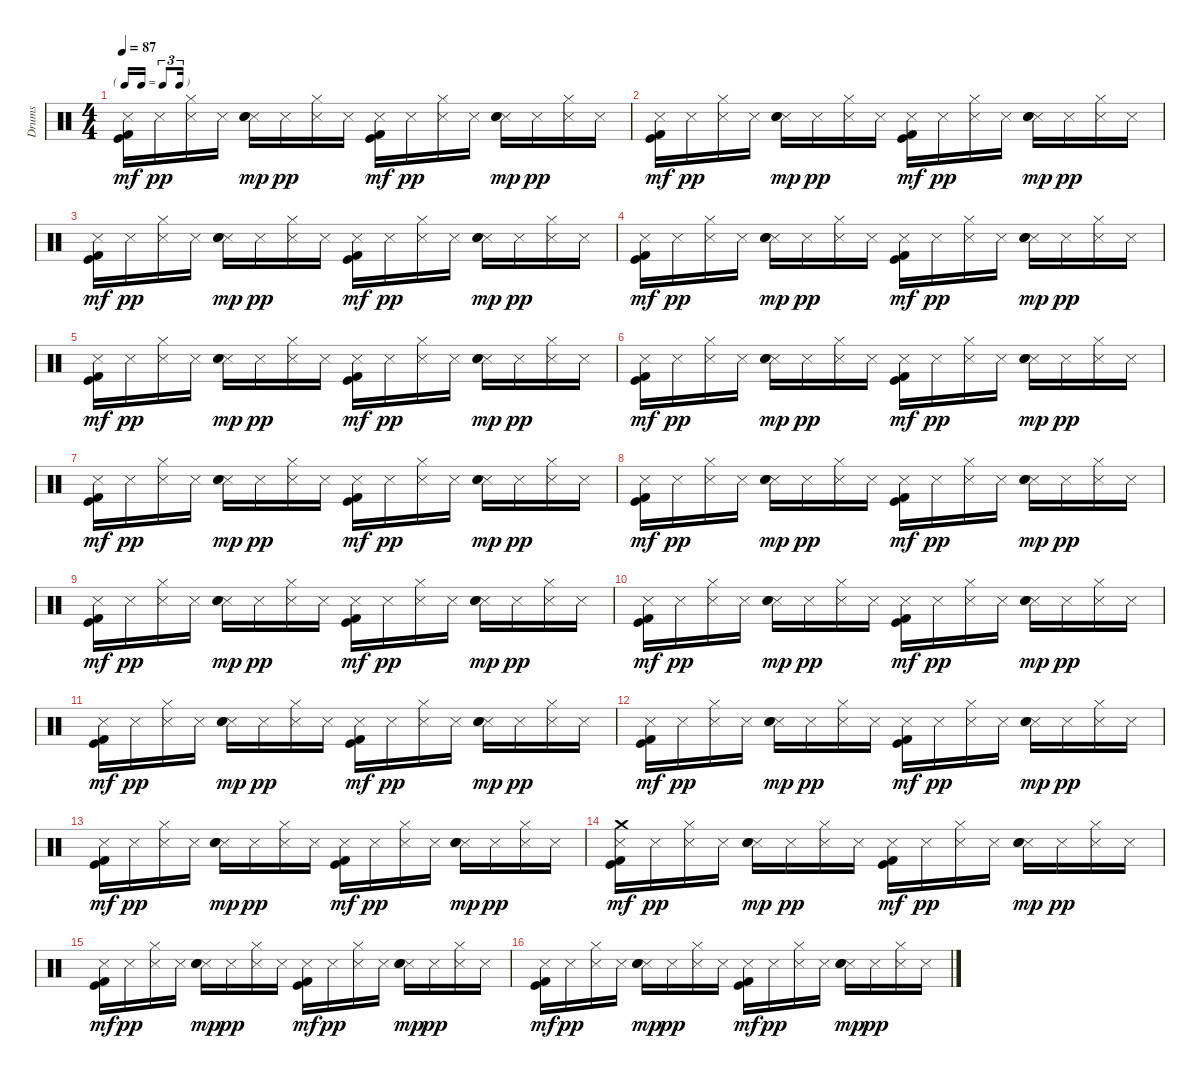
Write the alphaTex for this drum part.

\track ("Drums" "Drums") {instrument percussion}
\staff {score}
\articulation defaults
\ts (4 4)
\tf triplet16th
\tempo 87
\clef neutral
\ks c
("Metronome (hit)" "Kick (hit)" "Kick (hit) 2").16{dy mf} "Metronome (hit)".16{dy pp} ("Hi-Hat (closed)" "Metronome (hit)").16 "Metronome (hit)".16 ("Metronome (hit)" "Electric Snare (hit)" "Snare (hit) 2").16{dy mp} "Metronome (hit)".16{dy pp} ("Hi-Hat (closed)" "Metronome (hit)").16 "Metronome (hit)".16 ("Metronome (hit)" "Kick (hit)" "Kick (hit) 2").16{dy mf} "Metronome (hit)".16{dy pp} ("Hi-Hat (closed)" "Metronome (hit)").16 "Metronome (hit)".16 ("Metronome (hit)" "Electric Snare (hit)" "Snare (hit) 2").16{dy mp} "Metronome (hit)".16{dy pp} ("Hi-Hat (closed)" "Metronome (hit)").16 "Metronome (hit)".16 |
("Metronome (hit)" "Kick (hit)" "Kick (hit) 2").16{dy mf} "Metronome (hit)".16{dy pp} ("Hi-Hat (closed)" "Metronome (hit)").16 "Metronome (hit)".16 ("Metronome (hit)" "Electric Snare (hit)" "Snare (hit) 2").16{dy mp} "Metronome (hit)".16{dy pp} ("Hi-Hat (closed)" "Metronome (hit)").16 "Metronome (hit)".16 ("Metronome (hit)" "Kick (hit)" "Kick (hit) 2").16{dy mf} "Metronome (hit)".16{dy pp} ("Hi-Hat (closed)" "Metronome (hit)").16 "Metronome (hit)".16 ("Metronome (hit)" "Electric Snare (hit)" "Snare (hit) 2").16{dy mp} "Metronome (hit)".16{dy pp} ("Hi-Hat (closed)" "Metronome (hit)").16 "Metronome (hit)".16 |
("Metronome (hit)" "Kick (hit)" "Kick (hit) 2").16{dy mf} "Metronome (hit)".16{dy pp} ("Hi-Hat (closed)" "Metronome (hit)").16 "Metronome (hit)".16 ("Metronome (hit)" "Electric Snare (hit)" "Snare (hit) 2").16{dy mp} "Metronome (hit)".16{dy pp} ("Hi-Hat (closed)" "Metronome (hit)").16 "Metronome (hit)".16 ("Metronome (hit)" "Kick (hit)" "Kick (hit) 2").16{dy mf} "Metronome (hit)".16{dy pp} ("Hi-Hat (closed)" "Metronome (hit)").16 "Metronome (hit)".16 ("Metronome (hit)" "Electric Snare (hit)" "Snare (hit) 2").16{dy mp} "Metronome (hit)".16{dy pp} ("Hi-Hat (closed)" "Metronome (hit)").16 "Metronome (hit)".16 |
("Metronome (hit)" "Kick (hit)" "Kick (hit) 2").16{dy mf} "Metronome (hit)".16{dy pp} ("Hi-Hat (closed)" "Metronome (hit)").16 "Metronome (hit)".16 ("Metronome (hit)" "Electric Snare (hit)" "Snare (hit) 2").16{dy mp} "Metronome (hit)".16{dy pp} ("Hi-Hat (closed)" "Metronome (hit)").16 "Metronome (hit)".16 ("Metronome (hit)" "Kick (hit)" "Kick (hit) 2").16{dy mf} "Metronome (hit)".16{dy pp} ("Hi-Hat (closed)" "Metronome (hit)").16 "Metronome (hit)".16 ("Metronome (hit)" "Electric Snare (hit)" "Snare (hit) 2").16{dy mp} "Metronome (hit)".16{dy pp} ("Hi-Hat (closed)" "Metronome (hit)").16 "Metronome (hit)".16 |
("Metronome (hit)" "Kick (hit)" "Kick (hit) 2").16{dy mf} "Metronome (hit)".16{dy pp} ("Hi-Hat (closed)" "Metronome (hit)").16 "Metronome (hit)".16 ("Metronome (hit)" "Electric Snare (hit)" "Snare (hit) 2").16{dy mp} "Metronome (hit)".16{dy pp} ("Hi-Hat (closed)" "Metronome (hit)").16 "Metronome (hit)".16 ("Metronome (hit)" "Kick (hit)" "Kick (hit) 2").16{dy mf} "Metronome (hit)".16{dy pp} ("Hi-Hat (closed)" "Metronome (hit)").16 "Metronome (hit)".16 ("Metronome (hit)" "Electric Snare (hit)" "Snare (hit) 2").16{dy mp} "Metronome (hit)".16{dy pp} ("Hi-Hat (closed)" "Metronome (hit)").16 "Metronome (hit)".16 |
("Metronome (hit)" "Kick (hit)" "Kick (hit) 2").16{dy mf} "Metronome (hit)".16{dy pp} ("Hi-Hat (closed)" "Metronome (hit)").16 "Metronome (hit)".16 ("Metronome (hit)" "Electric Snare (hit)" "Snare (hit) 2").16{dy mp} "Metronome (hit)".16{dy pp} ("Hi-Hat (closed)" "Metronome (hit)").16 "Metronome (hit)".16 ("Metronome (hit)" "Kick (hit)" "Kick (hit) 2").16{dy mf} "Metronome (hit)".16{dy pp} ("Hi-Hat (closed)" "Metronome (hit)").16 "Metronome (hit)".16 ("Metronome (hit)" "Electric Snare (hit)" "Snare (hit) 2").16{dy mp} "Metronome (hit)".16{dy pp} ("Hi-Hat (closed)" "Metronome (hit)").16 "Metronome (hit)".16 |
("Metronome (hit)" "Kick (hit)" "Kick (hit) 2").16{dy mf} "Metronome (hit)".16{dy pp} ("Hi-Hat (closed)" "Metronome (hit)").16 "Metronome (hit)".16 ("Metronome (hit)" "Electric Snare (hit)" "Snare (hit) 2").16{dy mp} "Metronome (hit)".16{dy pp} ("Hi-Hat (closed)" "Metronome (hit)").16 "Metronome (hit)".16 ("Metronome (hit)" "Kick (hit)" "Kick (hit) 2").16{dy mf} "Metronome (hit)".16{dy pp} ("Hi-Hat (closed)" "Metronome (hit)").16 "Metronome (hit)".16 ("Metronome (hit)" "Electric Snare (hit)" "Snare (hit) 2").16{dy mp} "Metronome (hit)".16{dy pp} ("Hi-Hat (closed)" "Metronome (hit)").16 "Metronome (hit)".16 |
("Metronome (hit)" "Kick (hit)" "Kick (hit) 2").16{dy mf} "Metronome (hit)".16{dy pp} ("Hi-Hat (closed)" "Metronome (hit)").16 "Metronome (hit)".16 ("Metronome (hit)" "Electric Snare (hit)" "Snare (hit) 2").16{dy mp} "Metronome (hit)".16{dy pp} ("Hi-Hat (closed)" "Metronome (hit)").16 "Metronome (hit)".16 ("Metronome (hit)" "Kick (hit)" "Kick (hit) 2").16{dy mf} "Metronome (hit)".16{dy pp} ("Hi-Hat (closed)" "Metronome (hit)").16 "Metronome (hit)".16 ("Metronome (hit)" "Electric Snare (hit)" "Snare (hit) 2").16{dy mp} "Metronome (hit)".16{dy pp} ("Hi-Hat (closed)" "Metronome (hit)").16 "Metronome (hit)".16 |
("Metronome (hit)" "Kick (hit)" "Kick (hit) 2").16{dy mf} "Metronome (hit)".16{dy pp} ("Hi-Hat (closed)" "Metronome (hit)").16 "Metronome (hit)".16 ("Metronome (hit)" "Electric Snare (hit)" "Snare (hit) 2").16{dy mp} "Metronome (hit)".16{dy pp} ("Hi-Hat (closed)" "Metronome (hit)").16 "Metronome (hit)".16 ("Metronome (hit)" "Kick (hit)" "Kick (hit) 2").16{dy mf} "Metronome (hit)".16{dy pp} ("Hi-Hat (closed)" "Metronome (hit)").16 "Metronome (hit)".16 ("Metronome (hit)" "Electric Snare (hit)" "Snare (hit) 2").16{dy mp} "Metronome (hit)".16{dy pp} ("Hi-Hat (closed)" "Metronome (hit)").16 "Metronome (hit)".16 |
("Metronome (hit)" "Kick (hit)" "Kick (hit) 2").16{dy mf} "Metronome (hit)".16{dy pp} ("Hi-Hat (closed)" "Metronome (hit)").16 "Metronome (hit)".16 ("Metronome (hit)" "Electric Snare (hit)" "Snare (hit) 2").16{dy mp} "Metronome (hit)".16{dy pp} ("Hi-Hat (closed)" "Metronome (hit)").16 "Metronome (hit)".16 ("Metronome (hit)" "Kick (hit)" "Kick (hit) 2").16{dy mf} "Metronome (hit)".16{dy pp} ("Hi-Hat (closed)" "Metronome (hit)").16 "Metronome (hit)".16 ("Metronome (hit)" "Electric Snare (hit)" "Snare (hit) 2").16{dy mp} "Metronome (hit)".16{dy pp} ("Hi-Hat (closed)" "Metronome (hit)").16 "Metronome (hit)".16 |
("Metronome (hit)" "Kick (hit)" "Kick (hit) 2").16{dy mf} "Metronome (hit)".16{dy pp} ("Hi-Hat (closed)" "Metronome (hit)").16 "Metronome (hit)".16 ("Metronome (hit)" "Electric Snare (hit)" "Snare (hit) 2").16{dy mp} "Metronome (hit)".16{dy pp} ("Hi-Hat (closed)" "Metronome (hit)").16 "Metronome (hit)".16 ("Metronome (hit)" "Kick (hit)" "Kick (hit) 2").16{dy mf} "Metronome (hit)".16{dy pp} ("Hi-Hat (closed)" "Metronome (hit)").16 "Metronome (hit)".16 ("Metronome (hit)" "Electric Snare (hit)" "Snare (hit) 2").16{dy mp} "Metronome (hit)".16{dy pp} ("Hi-Hat (closed)" "Metronome (hit)").16 "Metronome (hit)".16 |
("Metronome (hit)" "Kick (hit)" "Kick (hit) 2").16{dy mf} "Metronome (hit)".16{dy pp} ("Hi-Hat (closed)" "Metronome (hit)").16 "Metronome (hit)".16 ("Metronome (hit)" "Electric Snare (hit)" "Snare (hit) 2").16{dy mp} "Metronome (hit)".16{dy pp} ("Hi-Hat (closed)" "Metronome (hit)").16 "Metronome (hit)".16 ("Metronome (hit)" "Kick (hit)" "Kick (hit) 2").16{dy mf} "Metronome (hit)".16{dy pp} ("Hi-Hat (closed)" "Metronome (hit)").16 "Metronome (hit)".16 ("Metronome (hit)" "Electric Snare (hit)" "Snare (hit) 2").16{dy mp} "Metronome (hit)".16{dy pp} ("Hi-Hat (closed)" "Metronome (hit)").16 "Metronome (hit)".16 |
("Metronome (hit)" "Kick (hit)" "Kick (hit) 2").16{dy mf} "Metronome (hit)".16{dy pp} ("Hi-Hat (closed)" "Metronome (hit)").16 "Metronome (hit)".16 ("Metronome (hit)" "Electric Snare (hit)" "Snare (hit) 2").16{dy mp} "Metronome (hit)".16{dy pp} ("Hi-Hat (closed)" "Metronome (hit)").16 "Metronome (hit)".16 ("Metronome (hit)" "Kick (hit)" "Kick (hit) 2").16{dy mf} "Metronome (hit)".16{dy pp} ("Hi-Hat (closed)" "Metronome (hit)").16 "Metronome (hit)".16 ("Metronome (hit)" "Electric Snare (hit)" "Snare (hit) 2").16{dy mp} "Metronome (hit)".16{dy pp} ("Hi-Hat (closed)" "Metronome (hit)").16 "Metronome (hit)".16 |
("Metronome (hit)" "Crash medium (hit)" "Kick (hit)" "Kick (hit) 2").16{dy mf} "Metronome (hit)".16{dy pp} ("Hi-Hat (closed)" "Metronome (hit)").16 "Metronome (hit)".16 ("Metronome (hit)" "Electric Snare (hit)" "Snare (hit) 2").16{dy mp} "Metronome (hit)".16{dy pp} ("Hi-Hat (closed)" "Metronome (hit)").16 "Metronome (hit)".16 ("Metronome (hit)" "Kick (hit)" "Kick (hit) 2").16{dy mf} "Metronome (hit)".16{dy pp} ("Hi-Hat (closed)" "Metronome (hit)").16 "Metronome (hit)".16 ("Metronome (hit)" "Electric Snare (hit)" "Snare (hit) 2").16{dy mp} "Metronome (hit)".16{dy pp} ("Hi-Hat (closed)" "Metronome (hit)").16 "Metronome (hit)".16 |
("Metronome (hit)" "Kick (hit)" "Kick (hit) 2").16{dy mf} "Metronome (hit)".16{dy pp} ("Hi-Hat (closed)" "Metronome (hit)").16 "Metronome (hit)".16 ("Metronome (hit)" "Electric Snare (hit)" "Snare (hit) 2").16{dy mp} "Metronome (hit)".16{dy pp} ("Hi-Hat (closed)" "Metronome (hit)").16 "Metronome (hit)".16 ("Metronome (hit)" "Kick (hit)" "Kick (hit) 2").16{dy mf} "Metronome (hit)".16{dy pp} ("Hi-Hat (closed)" "Metronome (hit)").16 "Metronome (hit)".16 ("Metronome (hit)" "Electric Snare (hit)" "Snare (hit) 2").16{dy mp} "Metronome (hit)".16{dy pp} ("Hi-Hat (closed)" "Metronome (hit)").16 "Metronome (hit)".16 |
("Metronome (hit)" "Kick (hit)" "Kick (hit) 2").16{dy mf} "Metronome (hit)".16{dy pp} ("Hi-Hat (closed)" "Metronome (hit)").16 "Metronome (hit)".16 ("Metronome (hit)" "Electric Snare (hit)" "Snare (hit) 2").16{dy mp} "Metronome (hit)".16{dy pp} ("Hi-Hat (closed)" "Metronome (hit)").16 "Metronome (hit)".16 ("Metronome (hit)" "Kick (hit)" "Kick (hit) 2").16{dy mf} "Metronome (hit)".16{dy pp} ("Hi-Hat (closed)" "Metronome (hit)").16 "Metronome (hit)".16 ("Metronome (hit)" "Electric Snare (hit)" "Snare (hit) 2").16{dy mp} "Metronome (hit)".16{dy pp} ("Hi-Hat (closed)" "Metronome (hit)").16 "Metronome (hit)".16
